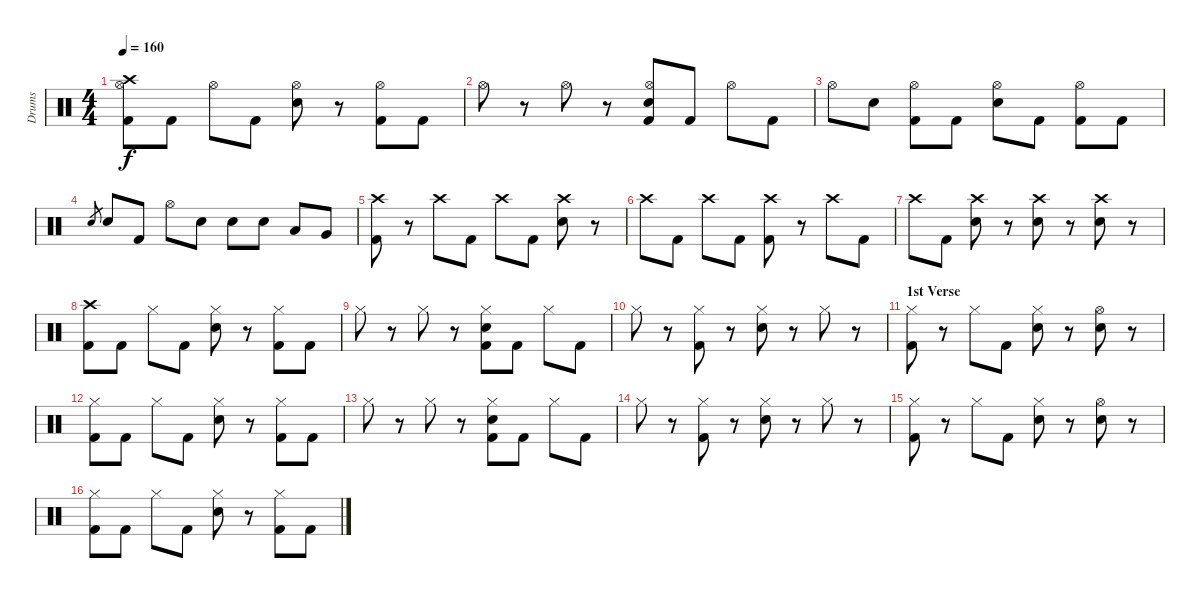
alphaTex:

\track ("Drums" "Drums") {instrument percussion}
\staff {score}
\articulation defaults
\ts (4 4)
\tempo 160
\clef neutral
\ks c
("Kick (hit) 2" "Crash high (hit)" "Hi-Hat (open)").8{dy f} "Kick (hit) 2".8 "Hi-Hat (open)".8 "Kick (hit) 2".8 ("Electric Snare (hit)" "Hi-Hat (open)").8 r.8 ("Kick (hit) 2" "Hi-Hat (open)").8 "Kick (hit) 2".8 |
"Hi-Hat (open)".8 r.8 "Hi-Hat (open)".8 r.8 ("Electric Snare (hit)" "Kick (hit) 2" "Hi-Hat (open)").8 "Kick (hit) 2".8 "Hi-Hat (open)".8 "Kick (hit) 2".8 |
"Hi-Hat (open)".8 "Electric Snare (hit)".8 ("Kick (hit) 2" "Hi-Hat (open)").8 "Kick (hit) 2".8 ("Electric Snare (hit)" "Hi-Hat (open)").8 "Kick (hit) 2".8 ("Kick (hit) 2" "Hi-Hat (open)").8 "Kick (hit) 2".8 |
"Electric Snare (hit)".8{gr} "Electric Snare (hit)".8 "Kick (hit) 2".8 "Hi-Hat (open)".8 "Electric Snare (hit)".8 "Electric Snare (hit)".8 "Electric Snare (hit)".8 "Low Tom (hit)".8 "Very Low Tom (hit)".8 |
("Kick (hit) 2" "Crash high (hit)").8 r.8 "Crash high (hit)".8 "Kick (hit) 2".8 "Crash high (hit)".8 "Kick (hit) 2".8 ("Electric Snare (hit)" "Crash high (hit)").8 r.8 |
"Crash high (hit)".8 "Kick (hit) 2".8 "Crash high (hit)".8 "Kick (hit) 2".8 ("Kick (hit) 2" "Crash high (hit)").8 r.8 "Crash high (hit)".8 "Kick (hit) 2".8 |
"Crash high (hit)".8 "Kick (hit) 2".8 ("Electric Snare (hit)" "Crash high (hit)").8 r.8 ("Electric Snare (hit)" "Crash high (hit)").8 r.8 ("Electric Snare (hit)" "Crash high (hit)").8 r.8 |
("Kick (hit) 2" "Crash high (hit)").8 "Kick (hit) 2".8 "Hi-Hat (closed)".8 "Kick (hit) 2".8 ("Electric Snare (hit)" "Hi-Hat (closed)").8 r.8 ("Kick (hit) 2" "Hi-Hat (closed)").8 "Kick (hit) 2".8 |
"Hi-Hat (closed)".8 r.8 "Hi-Hat (closed)".8 r.8 ("Electric Snare (hit)" "Kick (hit) 2" "Hi-Hat (closed)").8 "Kick (hit) 2".8 "Hi-Hat (closed)".8 "Kick (hit) 2".8 |
"Hi-Hat (closed)".8 r.8 ("Kick (hit) 2" "Hi-Hat (closed)").8 r.8 ("Electric Snare (hit)" "Hi-Hat (closed)").8 r.8 "Hi-Hat (closed)".8 r.8 |
\section ("" "1st Verse")
("Kick (hit) 2" "Hi-Hat (closed)").8 r.8 "Hi-Hat (closed)".8 "Kick (hit) 2".8 ("Electric Snare (hit)" "Hi-Hat (closed)").8 r.8 ("Electric Snare (hit)" "Hi-Hat (open)").8 r.8 |
("Kick (hit) 2" "Hi-Hat (closed)").8 "Kick (hit) 2".8 "Hi-Hat (closed)".8 "Kick (hit) 2".8 ("Electric Snare (hit)" "Hi-Hat (closed)").8 r.8 ("Kick (hit) 2" "Hi-Hat (closed)").8 "Kick (hit) 2".8 |
"Hi-Hat (closed)".8 r.8 "Hi-Hat (closed)".8 r.8 ("Electric Snare (hit)" "Kick (hit) 2" "Hi-Hat (closed)").8 "Kick (hit) 2".8 "Hi-Hat (closed)".8 "Kick (hit) 2".8 |
"Hi-Hat (closed)".8 r.8 ("Kick (hit) 2" "Hi-Hat (closed)").8 r.8 ("Electric Snare (hit)" "Hi-Hat (closed)").8 r.8 "Hi-Hat (closed)".8 r.8 |
("Kick (hit) 2" "Hi-Hat (closed)").8 r.8 "Hi-Hat (closed)".8 "Kick (hit) 2".8 ("Electric Snare (hit)" "Hi-Hat (closed)").8 r.8 ("Electric Snare (hit)" "Hi-Hat (open)").8 r.8 |
("Kick (hit) 2" "Hi-Hat (closed)").8 "Kick (hit) 2".8 "Hi-Hat (closed)".8 "Kick (hit) 2".8 ("Electric Snare (hit)" "Hi-Hat (closed)").8 r.8 ("Kick (hit) 2" "Hi-Hat (closed)").8 "Kick (hit) 2".8
